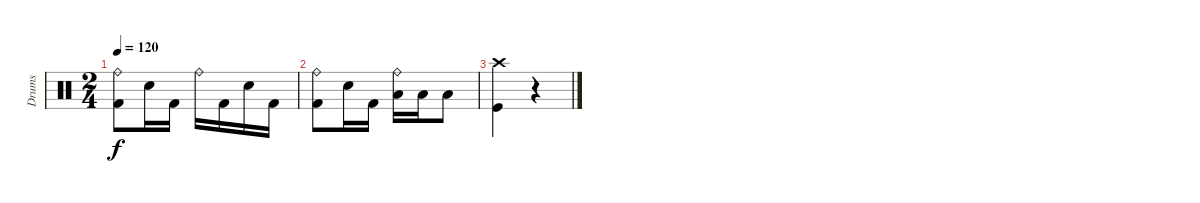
\track ("Drums" "Drums") {instrument percussion}
\staff {score}
\articulation defaults
\ts (2 4)
\tempo 120
\clef neutral
\ks aminor
("Kick (hit) 2" "Ride (bell)").8{dy f} "Electric Snare (hit)".16 "Kick (hit) 2".16 "Ride (bell)".16 "Kick (hit) 2".16 "Electric Snare (hit)".16 "Kick (hit) 2".16 |
("Kick (hit) 2" "Ride (bell)").8 "Electric Snare (hit)".16 "Kick (hit) 2".16 ("Low Tom (hit)" "Ride (bell)").16 "Low Tom (hit)".16 "Low Tom (hit)".8 |
("Crash high (hit)" "Kick (hit)").4 r.4
